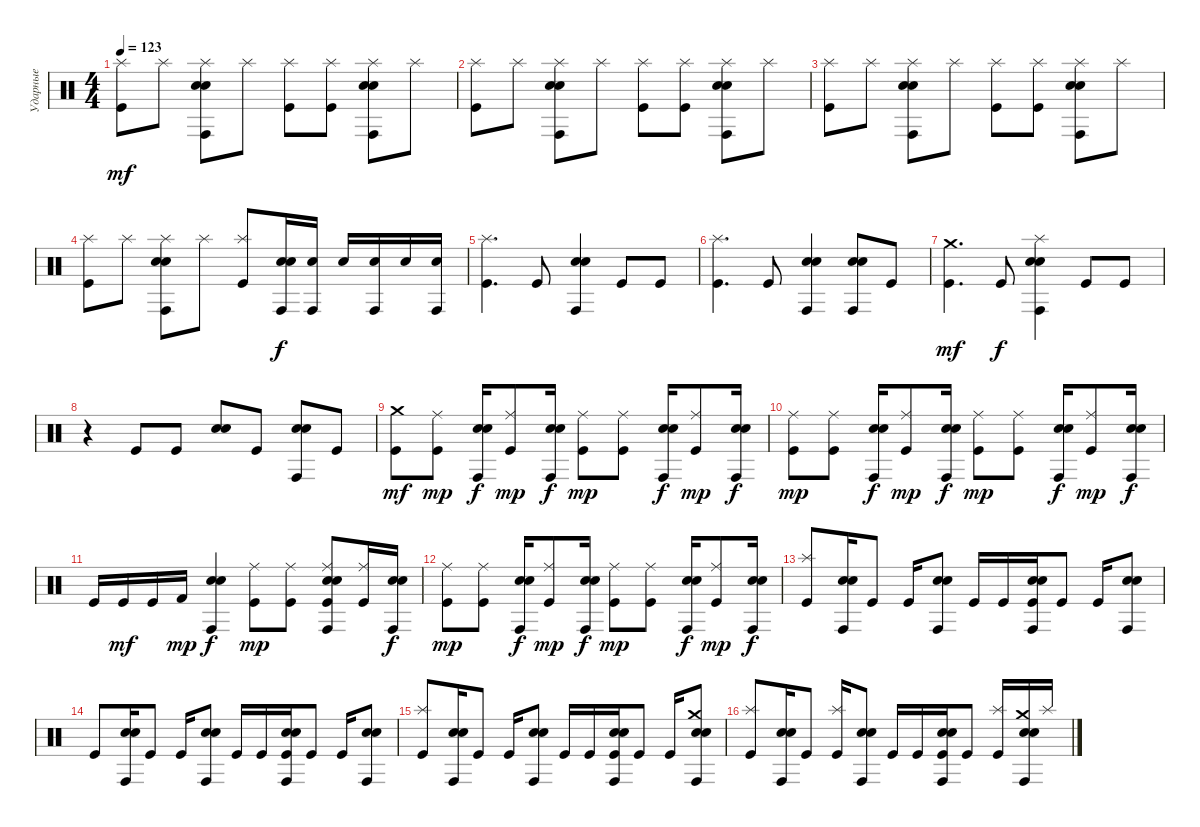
\track ("Ударные" "Ударные") {instrument percussion}
\staff {score}
\articulation defaults
\ts (4 4)
\tempo 123
\clef neutral
\ks c
("Splash (hit)" "Kick (hit)").8{dy mf} "Splash (hit)".8 ("Splash (hit)" "Conga high (hit)" "Electric Snare (hit)" "Snare (hit) 2").8 "Splash (hit)".8 ("Splash (hit)" "Kick (hit)").8 ("Splash (hit)" "Kick (hit)").8 ("Splash (hit)" "Conga high (hit)" "Electric Snare (hit)" "Snare (hit) 2").8 "Splash (hit)".8 |
("Splash (hit)" "Kick (hit)").8 "Splash (hit)".8 ("Splash (hit)" "Conga high (hit)" "Electric Snare (hit)" "Snare (hit) 2").8 "Splash (hit)".8 ("Splash (hit)" "Kick (hit)").8 ("Splash (hit)" "Kick (hit)").8 ("Splash (hit)" "Conga high (hit)" "Electric Snare (hit)" "Snare (hit) 2").8 "Splash (hit)".8 |
("Splash (hit)" "Kick (hit)").8 "Splash (hit)".8 ("Splash (hit)" "Conga high (hit)" "Electric Snare (hit)" "Snare (hit) 2").8 "Splash (hit)".8 ("Splash (hit)" "Kick (hit)").8 ("Splash (hit)" "Kick (hit)").8 ("Splash (hit)" "Conga high (hit)" "Electric Snare (hit)" "Snare (hit) 2").8 "Splash (hit)".8 |
("Splash (hit)" "Kick (hit)").8 "Splash (hit)".8 ("Splash (hit)" "Conga high (hit)" "Electric Snare (hit)" "Snare (hit) 2").8 "Splash (hit)".8 ("Splash (hit)" "Kick (hit)").8 ("Conga high (hit)" "Electric Snare (hit)" "Snare (hit) 2").16{dy f} ("Conga high (hit)" "Electric Snare (hit)").16 "Electric Snare (hit)".16 ("Conga high (hit)" "Electric Snare (hit)").16 "Electric Snare (hit)".16 ("Conga high (hit)" "Electric Snare (hit)").16 |
("Splash (hit)" "Kick (hit)").4{d} "Kick (hit)".8 ("Conga high (hit)" "Electric Snare (hit)" "Snare (hit) 2").4 "Kick (hit)".8 "Kick (hit)".8 |
("Splash (hit)" "Kick (hit)").4{d} "Kick (hit)".8 ("Conga high (hit)" "Electric Snare (hit)" "Snare (hit) 2").4 ("Conga high (hit)" "Electric Snare (hit)" "Snare (hit) 2").8 "Kick (hit)".8 |
("Crash medium (hit)" "Kick (hit)").4{d dy mf} "Kick (hit)".8{dy f} ("Splash (hit)" "Conga high (hit)" "Electric Snare (hit)" "Snare (hit) 2").4 "Kick (hit)".8 "Kick (hit)".8 |
r.4 "Kick (hit)".8 "Kick (hit)".8 ("Electric Snare (hit)" "Snare (hit) 2").8 "Kick (hit)".8 ("Conga high (hit)" "Electric Snare (hit)" "Snare (hit) 2").8 "Kick (hit)".8 |
("Crash medium (hit)" "Kick (hit)").8{dy mf} ("Ride (middle)" "Kick (hit)").8{dy mp} ("Conga high (hit)" "Electric Snare (hit)" "Snare (hit) 2").16{dy f} ("Ride (middle)" "Kick (hit)").8{dy mp} ("Conga high (hit)" "Electric Snare (hit)" "Snare (hit) 2").16{dy f} ("Ride (middle)" "Kick (hit)").8{dy mp} ("Ride (middle)" "Kick (hit)").8 ("Conga high (hit)" "Electric Snare (hit)" "Snare (hit) 2").16{dy f} ("Ride (middle)" "Kick (hit)").8{dy mp} ("Conga high (hit)" "Electric Snare (hit)" "Snare (hit) 2").16{dy f} |
("Ride (middle)" "Kick (hit)").8{dy mp} ("Ride (middle)" "Kick (hit)").8 ("Conga high (hit)" "Electric Snare (hit)" "Snare (hit) 2").16{dy f} ("Ride (middle)" "Kick (hit)").8{dy mp} ("Conga high (hit)" "Electric Snare (hit)" "Snare (hit) 2").16{dy f} ("Ride (middle)" "Kick (hit)").8{dy mp} ("Ride (middle)" "Kick (hit)").8 ("Conga high (hit)" "Electric Snare (hit)" "Snare (hit) 2").16{dy f} ("Ride (middle)" "Kick (hit)").8{dy mp} ("Conga high (hit)" "Electric Snare (hit)" "Snare (hit) 2").16{dy f} |
"Kick (hit)".16 "Kick (hit)".16{dy mf} "Kick (hit)".16 "Kick (hit) 2".16{dy mp} ("Conga high (hit)" "Electric Snare (hit)" "Snare (hit) 2").4{dy f} ("Ride (middle)" "Kick (hit)").8{dy mp} ("Ride (middle)" "Kick (hit)").8 ("Ride (middle)" "Conga high (hit)" "Electric Snare (hit)" "Snare (hit) 2" "Kick (hit)").8 ("Ride (middle)" "Kick (hit)").16 ("Conga high (hit)" "Electric Snare (hit)" "Snare (hit) 2").16{dy f} |
("Ride (middle)" "Kick (hit)").8{dy mp} ("Ride (middle)" "Kick (hit)").8 ("Conga high (hit)" "Electric Snare (hit)" "Snare (hit) 2").16{dy f} ("Ride (middle)" "Kick (hit)").8{dy mp} ("Conga high (hit)" "Electric Snare (hit)" "Snare (hit) 2").16{dy f} ("Ride (middle)" "Kick (hit)").8{dy mp} ("Ride (middle)" "Kick (hit)").8 ("Conga high (hit)" "Electric Snare (hit)" "Snare (hit) 2").16{dy f} ("Ride (middle)" "Kick (hit)").8{dy mp} ("Conga high (hit)" "Electric Snare (hit)" "Snare (hit) 2").16{dy f} |
("Splash (hit)" "Kick (hit)").8 ("Conga high (hit)" "Electric Snare (hit)" "Snare (hit) 2").16 "Kick (hit)".8 "Kick (hit)".16 ("Conga high (hit)" "Electric Snare (hit)" "Snare (hit) 2").8 "Kick (hit)".16 "Kick (hit)".16 ("Conga high (hit)" "Electric Snare (hit)" "Snare (hit) 2" "Kick (hit)").16 "Kick (hit)".8 "Kick (hit)".16 ("Conga high (hit)" "Electric Snare (hit)" "Snare (hit) 2").8 |
"Kick (hit)".8 ("Conga high (hit)" "Electric Snare (hit)" "Snare (hit) 2").16 "Kick (hit)".8 "Kick (hit)".16 ("Conga high (hit)" "Electric Snare (hit)" "Snare (hit) 2").8 "Kick (hit)".16 "Kick (hit)".16 ("Conga high (hit)" "Electric Snare (hit)" "Snare (hit) 2" "Kick (hit)").16 "Kick (hit)".8 "Kick (hit)".16 ("Conga high (hit)" "Electric Snare (hit)" "Snare (hit) 2").8 |
("Splash (hit)" "Kick (hit)").8 ("Conga high (hit)" "Electric Snare (hit)" "Snare (hit) 2").16 "Kick (hit)".8 "Kick (hit)".16 ("Conga high (hit)" "Electric Snare (hit)" "Snare (hit) 2").8 "Kick (hit)".16 "Kick (hit)".16 ("Conga high (hit)" "Electric Snare (hit)" "Snare (hit) 2" "Kick (hit)").16 "Kick (hit)".8 "Kick (hit)".16 ("Crash medium (hit)" "Conga high (hit)" "Electric Snare (hit)" "Snare (hit) 2").8 |
("Splash (hit)" "Kick (hit)").8 ("Conga high (hit)" "Electric Snare (hit)" "Snare (hit) 2").16 "Kick (hit)".8 ("Splash (hit)" "Kick (hit)").16 ("Conga high (hit)" "Electric Snare (hit)" "Snare (hit) 2").8 "Kick (hit)".16 "Kick (hit)".16 ("Conga high (hit)" "Electric Snare (hit)" "Snare (hit) 2" "Kick (hit)").16 "Kick (hit)".8 ("Splash (hit)" "Kick (hit)").16 ("Crash medium (hit)" "Conga high (hit)" "Electric Snare (hit)" "Snare (hit) 2").16 "Splash (hit)".16
